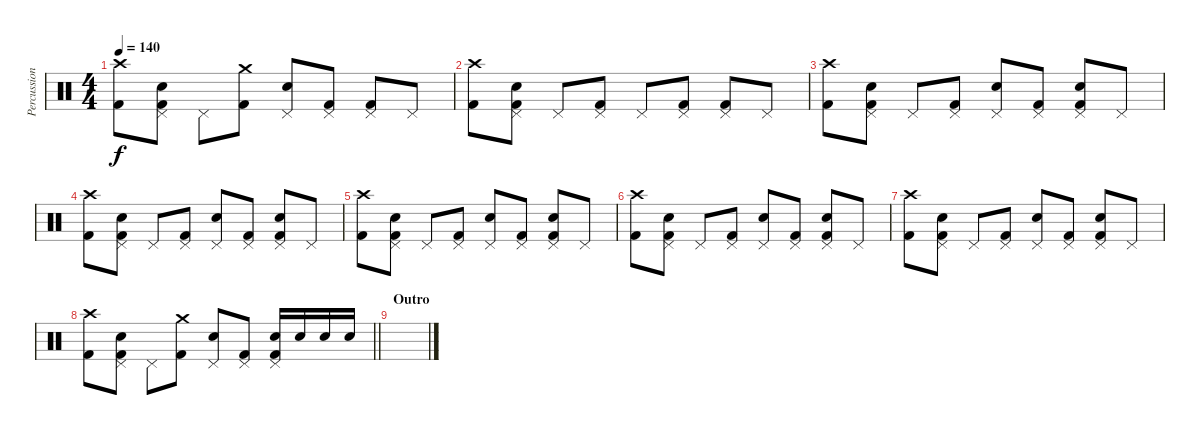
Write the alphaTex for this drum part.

\track ("Percussion" "Percussion") {instrument percussion}
\staff {score}
\articulation defaults
\ts (4 4)
\tempo 140
\clef neutral
\ks c
("Crash high (hit)" "Kick (hit) 2").8{dy f} ("Pedal Hi-Hat (hit)" "Electric Snare (hit)" "Kick (hit) 2").8 "Pedal Hi-Hat (hit)".8 ("Crash medium (hit)" "Kick (hit) 2").8 ("Pedal Hi-Hat (hit)" "Electric Snare (hit)").8 ("Pedal Hi-Hat (hit)" "Kick (hit) 2").8 ("Pedal Hi-Hat (hit)" "Kick (hit) 2").8 "Pedal Hi-Hat (hit)".8 |
("Crash high (hit)" "Kick (hit) 2").8 ("Pedal Hi-Hat (hit)" "Electric Snare (hit)" "Kick (hit) 2").8 "Pedal Hi-Hat (hit)".8 ("Pedal Hi-Hat (hit)" "Kick (hit) 2").8 "Pedal Hi-Hat (hit)".8 ("Pedal Hi-Hat (hit)" "Kick (hit) 2").8 ("Pedal Hi-Hat (hit)" "Kick (hit) 2").8 "Pedal Hi-Hat (hit)".8 |
("Crash high (hit)" "Kick (hit) 2").8 ("Pedal Hi-Hat (hit)" "Electric Snare (hit)" "Kick (hit) 2").8 "Pedal Hi-Hat (hit)".8 ("Pedal Hi-Hat (hit)" "Kick (hit) 2").8 ("Pedal Hi-Hat (hit)" "Electric Snare (hit)").8 ("Pedal Hi-Hat (hit)" "Kick (hit) 2").8 ("Pedal Hi-Hat (hit)" "Electric Snare (hit)" "Kick (hit) 2").8 "Pedal Hi-Hat (hit)".8 |
("Crash high (hit)" "Kick (hit) 2").8 ("Pedal Hi-Hat (hit)" "Electric Snare (hit)" "Kick (hit) 2").8 "Pedal Hi-Hat (hit)".8 ("Pedal Hi-Hat (hit)" "Kick (hit) 2").8 ("Pedal Hi-Hat (hit)" "Electric Snare (hit)").8 ("Pedal Hi-Hat (hit)" "Kick (hit) 2").8 ("Pedal Hi-Hat (hit)" "Electric Snare (hit)" "Kick (hit) 2").8 "Pedal Hi-Hat (hit)".8 |
("Crash high (hit)" "Kick (hit) 2").8 ("Pedal Hi-Hat (hit)" "Electric Snare (hit)" "Kick (hit) 2").8 "Pedal Hi-Hat (hit)".8 ("Pedal Hi-Hat (hit)" "Kick (hit) 2").8 ("Pedal Hi-Hat (hit)" "Electric Snare (hit)").8 ("Pedal Hi-Hat (hit)" "Kick (hit) 2").8 ("Pedal Hi-Hat (hit)" "Electric Snare (hit)" "Kick (hit) 2").8 "Pedal Hi-Hat (hit)".8 |
("Crash high (hit)" "Kick (hit) 2").8 ("Pedal Hi-Hat (hit)" "Electric Snare (hit)" "Kick (hit) 2").8 "Pedal Hi-Hat (hit)".8 ("Pedal Hi-Hat (hit)" "Kick (hit) 2").8 ("Pedal Hi-Hat (hit)" "Electric Snare (hit)").8 ("Pedal Hi-Hat (hit)" "Kick (hit) 2").8 ("Pedal Hi-Hat (hit)" "Electric Snare (hit)" "Kick (hit) 2").8 "Pedal Hi-Hat (hit)".8 |
("Crash high (hit)" "Kick (hit) 2").8 ("Pedal Hi-Hat (hit)" "Electric Snare (hit)" "Kick (hit) 2").8 "Pedal Hi-Hat (hit)".8 ("Pedal Hi-Hat (hit)" "Kick (hit) 2").8 ("Pedal Hi-Hat (hit)" "Electric Snare (hit)").8 ("Pedal Hi-Hat (hit)" "Kick (hit) 2").8 ("Pedal Hi-Hat (hit)" "Electric Snare (hit)" "Kick (hit) 2").8 "Pedal Hi-Hat (hit)".8 |
\barLineRight lightlight
("Crash high (hit)" "Kick (hit) 2").8 ("Pedal Hi-Hat (hit)" "Electric Snare (hit)" "Kick (hit) 2").8 "Pedal Hi-Hat (hit)".8 ("Crash medium (hit)" "Kick (hit) 2").8 ("Pedal Hi-Hat (hit)" "Electric Snare (hit)").8 ("Pedal Hi-Hat (hit)" "Kick (hit) 2").8 ("Pedal Hi-Hat (hit)" "Electric Snare (hit)" "Kick (hit) 2").16 "Electric Snare (hit)".16 "Electric Snare (hit)".16 "Electric Snare (hit)".16 |
\section ("" "Outro")
